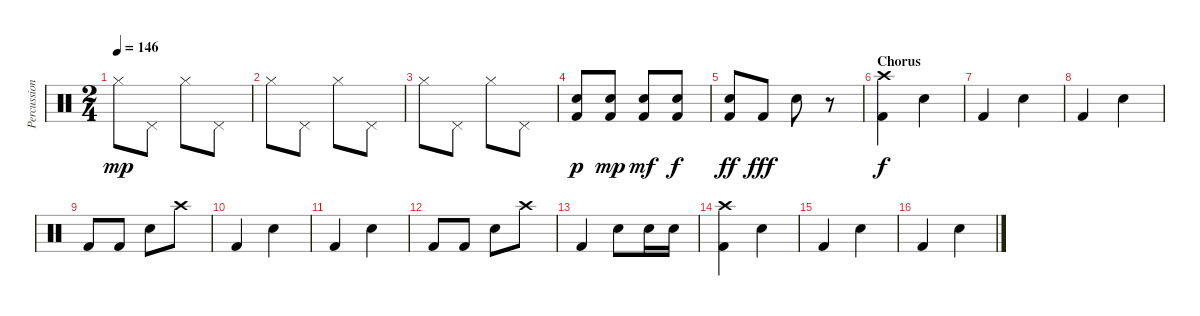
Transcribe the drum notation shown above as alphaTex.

\track ("Percussion" "Percussion") {instrument percussion}
\staff {score}
\articulation defaults
\ts (2 4)
\tempo 146
\clef neutral
\ks c "Hi-Hat (closed)".8{dy mp} "Pedal Hi-Hat (hit)".8 "Hi-Hat (closed)".8 "Pedal Hi-Hat (hit)".8
|
"Hi-Hat (closed)".8 "Pedal Hi-Hat (hit)".8 "Hi-Hat (closed)".8 "Pedal Hi-Hat (hit)".8 |
"Hi-Hat (closed)".8 "Pedal Hi-Hat (hit)".8 "Hi-Hat (closed)".8 "Pedal Hi-Hat (hit)".8 |
("Electric Snare (hit)" "Kick (hit) 2").8{dy p} ("Electric Snare (hit)" "Kick (hit) 2").8{dy mp} ("Electric Snare (hit)" "Kick (hit) 2").8{dy mf} ("Electric Snare (hit)" "Kick (hit) 2").8{dy f} |
("Electric Snare (hit)" "Kick (hit) 2").8{dy ff} "Kick (hit) 2".8{dy fff} "Electric Snare (hit)".8 r.8 |
\section ("" "Chorus")
("Crash high (hit)" "Kick (hit) 2").4{dy f} "Electric Snare (hit)".4 |
"Kick (hit) 2".4 "Electric Snare (hit)".4 |
"Kick (hit) 2".4 "Electric Snare (hit)".4 |
"Kick (hit) 2".8 "Kick (hit) 2".8 "Electric Snare (hit)".8 "Crash high (hit)".8 |
"Kick (hit) 2".4 "Electric Snare (hit)".4 |
"Kick (hit) 2".4 "Electric Snare (hit)".4 |
"Kick (hit) 2".8 "Kick (hit) 2".8 "Electric Snare (hit)".8 "Crash high (hit)".8 |
"Kick (hit) 2".4 "Electric Snare (hit)".8 "Electric Snare (hit)".16 "Electric Snare (hit)".16 |
("Crash high (hit)" "Kick (hit) 2").4 "Electric Snare (hit)".4 |
"Kick (hit) 2".4 "Electric Snare (hit)".4 |
"Kick (hit) 2".4 "Electric Snare (hit)".4
